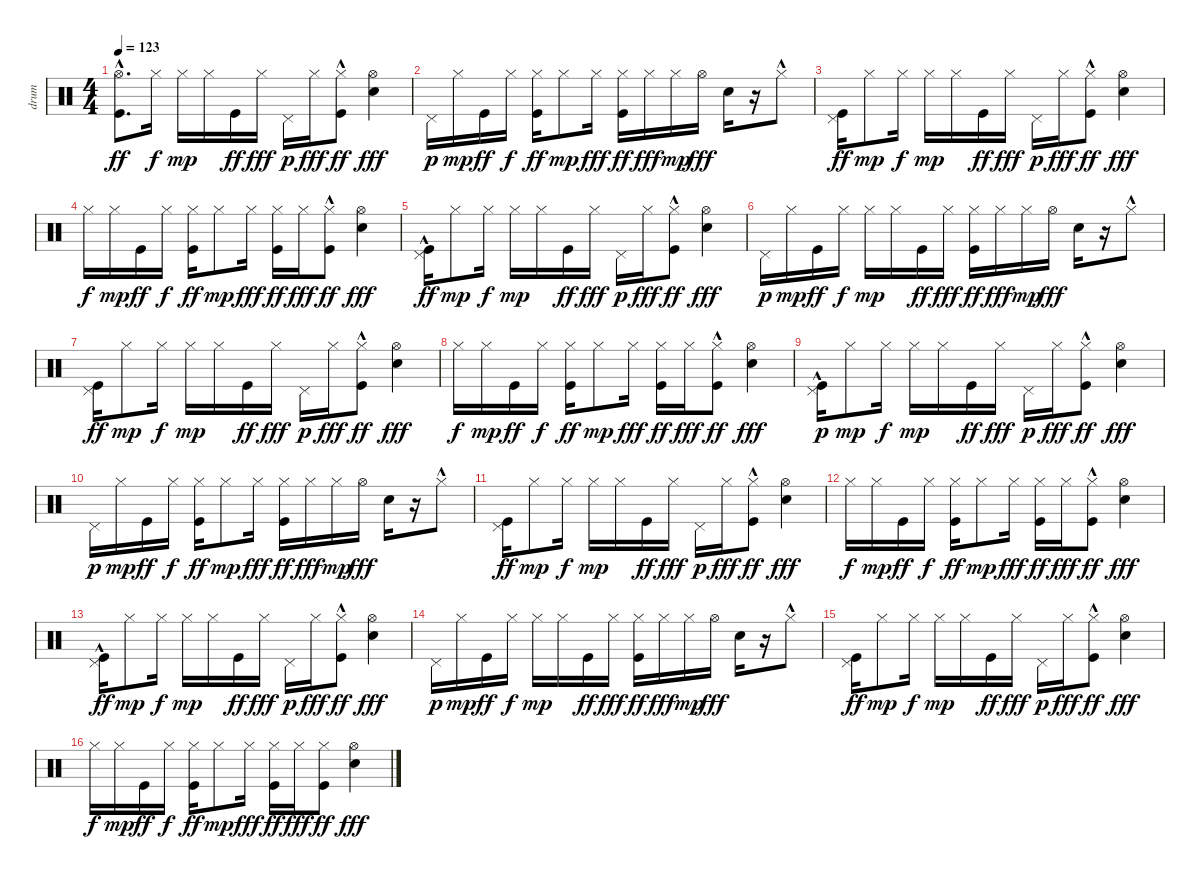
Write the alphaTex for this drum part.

\track ("drum" "drum") {instrument percussion}
\staff {score}
\articulation defaults
\ts (4 4)
\tempo 123
\clef neutral
\ks c
("Hi-Hat (open)"{hac} "Kick (hit)"{hac}).8{d dy ff} "Hi-Hat (closed)".16{dy f} "Hi-Hat (closed)".16{dy mp} "Hi-Hat (closed)".16 "Kick (hit)".16{dy ff} "Hi-Hat (closed)".16{dy fff} "Pedal Hi-Hat (hit)".16{dy p} "Hi-Hat (closed)".16{dy fff} ("Hi-Hat (closed)"{hac} "Kick (hit)").8{dy ff} ("Electric Snare (hit)" "Hi-Hat (open)").4{dy fff} |
"Pedal Hi-Hat (hit)".16{dy p} "Hi-Hat (closed)".16{dy mp} "Kick (hit)".16{dy ff} "Hi-Hat (closed)".16{dy f} ("Hi-Hat (closed)" "Kick (hit)").16{dy ff} "Hi-Hat (closed)".8{dy mp} "Hi-Hat (closed)".16{dy fff} ("Hi-Hat (closed)" "Kick (hit)").16{dy ff} "Hi-Hat (closed)".16{dy fff} "Hi-Hat (closed)".16{dy mp} "Hi-Hat (open)".16{dy fff} "Electric Snare (hit)".16 r.16 "Hi-Hat (closed)"{hac}.8 |
("Pedal Hi-Hat (hit)" "Kick (hit)").16{dy ff} "Hi-Hat (closed)".8{dy mp} "Hi-Hat (closed)".16{dy f} "Hi-Hat (closed)".16{dy mp} "Hi-Hat (closed)".16 "Kick (hit)".16{dy ff} "Hi-Hat (closed)".16{dy fff} "Pedal Hi-Hat (hit)".16{dy p} "Hi-Hat (closed)".16{dy fff} ("Hi-Hat (closed)"{hac} "Kick (hit)").8{dy ff} ("Hi-Hat (open)" "Electric Snare (hit)").4{dy fff} |
"Hi-Hat (closed)".16{dy f} "Hi-Hat (closed)".16{dy mp} "Kick (hit)".16{dy ff} "Hi-Hat (closed)".16{dy f} ("Hi-Hat (closed)" "Kick (hit)").16{dy ff} "Hi-Hat (closed)".8{dy mp} "Hi-Hat (closed)".16{dy fff} ("Hi-Hat (closed)" "Kick (hit)").16{dy ff} "Hi-Hat (closed)".16{dy fff} ("Hi-Hat (closed)"{hac} "Kick (hit)").8{dy ff} ("Hi-Hat (open)" "Electric Snare (hit)").4{dy fff} |
("Pedal Hi-Hat (hit)" "Kick (hit)"{hac}).16{dy ff} "Hi-Hat (closed)".8{dy mp} "Hi-Hat (closed)".16{dy f} "Hi-Hat (closed)".16{dy mp} "Hi-Hat (closed)".16 "Kick (hit)".16{dy ff} "Hi-Hat (closed)".16{dy fff} "Pedal Hi-Hat (hit)".16{dy p} "Hi-Hat (closed)".16{dy fff} ("Hi-Hat (closed)"{hac} "Kick (hit)").8{dy ff} ("Hi-Hat (open)" "Electric Snare (hit)").4{dy fff} |
"Pedal Hi-Hat (hit)".16{dy p} "Hi-Hat (closed)".16{dy mp} "Kick (hit)".16{dy ff} "Hi-Hat (closed)".16{dy f} "Hi-Hat (closed)".16{dy mp} "Hi-Hat (closed)".16 "Kick (hit)".16{dy ff} "Hi-Hat (closed)".16{dy fff} ("Hi-Hat (closed)" "Kick (hit)").16{dy ff} "Hi-Hat (closed)".16{dy fff} "Hi-Hat (closed)".16{dy mp} "Hi-Hat (open)".16{dy fff} "Electric Snare (hit)".16 r.16 "Hi-Hat (closed)"{hac}.8 |
("Pedal Hi-Hat (hit)" "Kick (hit)").16{dy ff} "Hi-Hat (closed)".8{dy mp} "Hi-Hat (closed)".16{dy f} "Hi-Hat (closed)".16{dy mp} "Hi-Hat (closed)".16 "Kick (hit)".16{dy ff} "Hi-Hat (closed)".16{dy fff} "Pedal Hi-Hat (hit)".16{dy p} "Hi-Hat (closed)".16{dy fff} ("Hi-Hat (closed)"{hac} "Kick (hit)").8{dy ff} ("Hi-Hat (open)" "Electric Snare (hit)").4{dy fff} |
"Hi-Hat (closed)".16{dy f} "Hi-Hat (closed)".16{dy mp} "Kick (hit)".16{dy ff} "Hi-Hat (closed)".16{dy f} ("Hi-Hat (closed)" "Kick (hit)").16{dy ff} "Hi-Hat (closed)".8{dy mp} "Hi-Hat (closed)".16{dy fff} ("Hi-Hat (closed)" "Kick (hit)").16{dy ff} "Hi-Hat (closed)".16{dy fff} ("Hi-Hat (closed)"{hac} "Kick (hit)").8{dy ff} ("Hi-Hat (open)" "Electric Snare (hit)").4{dy fff} |
("Kick (hit)"{hac} "Pedal Hi-Hat (hit)").16{dy p} "Hi-Hat (closed)".8{dy mp} "Hi-Hat (closed)".16{dy f} "Hi-Hat (closed)".16{dy mp} "Hi-Hat (closed)".16 "Kick (hit)".16{dy ff} "Hi-Hat (closed)".16{dy fff} "Pedal Hi-Hat (hit)".16{dy p} "Hi-Hat (closed)".16{dy fff} ("Hi-Hat (closed)"{hac} "Kick (hit)").8{dy ff} ("Electric Snare (hit)" "Hi-Hat (open)").4{dy fff} |
"Pedal Hi-Hat (hit)".16{dy p} "Hi-Hat (closed)".16{dy mp} "Kick (hit)".16{dy ff} "Hi-Hat (closed)".16{dy f} ("Hi-Hat (closed)" "Kick (hit)").16{dy ff} "Hi-Hat (closed)".8{dy mp} "Hi-Hat (closed)".16{dy fff} ("Hi-Hat (closed)" "Kick (hit)").16{dy ff} "Hi-Hat (closed)".16{dy fff} "Hi-Hat (closed)".16{dy mp} "Hi-Hat (open)".16{dy fff} "Electric Snare (hit)".16 r.16 "Hi-Hat (closed)"{hac}.8 |
("Pedal Hi-Hat (hit)" "Kick (hit)").16{dy ff} "Hi-Hat (closed)".8{dy mp} "Hi-Hat (closed)".16{dy f} "Hi-Hat (closed)".16{dy mp} "Hi-Hat (closed)".16 "Kick (hit)".16{dy ff} "Hi-Hat (closed)".16{dy fff} "Pedal Hi-Hat (hit)".16{dy p} "Hi-Hat (closed)".16{dy fff} ("Hi-Hat (closed)"{hac} "Kick (hit)").8{dy ff} ("Hi-Hat (open)" "Electric Snare (hit)").4{dy fff} |
"Hi-Hat (closed)".16{dy f} "Hi-Hat (closed)".16{dy mp} "Kick (hit)".16{dy ff} "Hi-Hat (closed)".16{dy f} ("Hi-Hat (closed)" "Kick (hit)").16{dy ff} "Hi-Hat (closed)".8{dy mp} "Hi-Hat (closed)".16{dy fff} ("Hi-Hat (closed)" "Kick (hit)").16{dy ff} "Hi-Hat (closed)".16{dy fff} ("Hi-Hat (closed)"{hac} "Kick (hit)").8{dy ff} ("Hi-Hat (open)" "Electric Snare (hit)").4{dy fff} |
("Pedal Hi-Hat (hit)" "Kick (hit)"{hac}).16{dy ff} "Hi-Hat (closed)".8{dy mp} "Hi-Hat (closed)".16{dy f} "Hi-Hat (closed)".16{dy mp} "Hi-Hat (closed)".16 "Kick (hit)".16{dy ff} "Hi-Hat (closed)".16{dy fff} "Pedal Hi-Hat (hit)".16{dy p} "Hi-Hat (closed)".16{dy fff} ("Hi-Hat (closed)"{hac} "Kick (hit)").8{dy ff} ("Hi-Hat (open)" "Electric Snare (hit)").4{dy fff} |
"Pedal Hi-Hat (hit)".16{dy p} "Hi-Hat (closed)".16{dy mp} "Kick (hit)".16{dy ff} "Hi-Hat (closed)".16{dy f} "Hi-Hat (closed)".16{dy mp} "Hi-Hat (closed)".16 "Kick (hit)".16{dy ff} "Hi-Hat (closed)".16{dy fff} ("Hi-Hat (closed)" "Kick (hit)").16{dy ff} "Hi-Hat (closed)".16{dy fff} "Hi-Hat (closed)".16{dy mp} "Hi-Hat (open)".16{dy fff} "Electric Snare (hit)".16 r.16 "Hi-Hat (closed)"{hac}.8 |
("Pedal Hi-Hat (hit)" "Kick (hit)").16{dy ff} "Hi-Hat (closed)".8{dy mp} "Hi-Hat (closed)".16{dy f} "Hi-Hat (closed)".16{dy mp} "Hi-Hat (closed)".16 "Kick (hit)".16{dy ff} "Hi-Hat (closed)".16{dy fff} "Pedal Hi-Hat (hit)".16{dy p} "Hi-Hat (closed)".16{dy fff} ("Hi-Hat (closed)"{hac} "Kick (hit)").8{dy ff} ("Hi-Hat (open)" "Electric Snare (hit)").4{dy fff} |
"Hi-Hat (closed)".16{dy f} "Hi-Hat (closed)".16{dy mp} "Kick (hit)".16{dy ff} "Hi-Hat (closed)".16{dy f} ("Hi-Hat (closed)" "Kick (hit)").16{dy ff} "Hi-Hat (closed)".8{dy mp} "Hi-Hat (closed)".16{dy fff} ("Hi-Hat (closed)" "Kick (hit)").16{dy ff} "Hi-Hat (closed)".16{dy fff} ("Hi-Hat (closed)" "Kick (hit)").8{dy ff} ("Hi-Hat (open)" "Electric Snare (hit)").4{dy fff}
